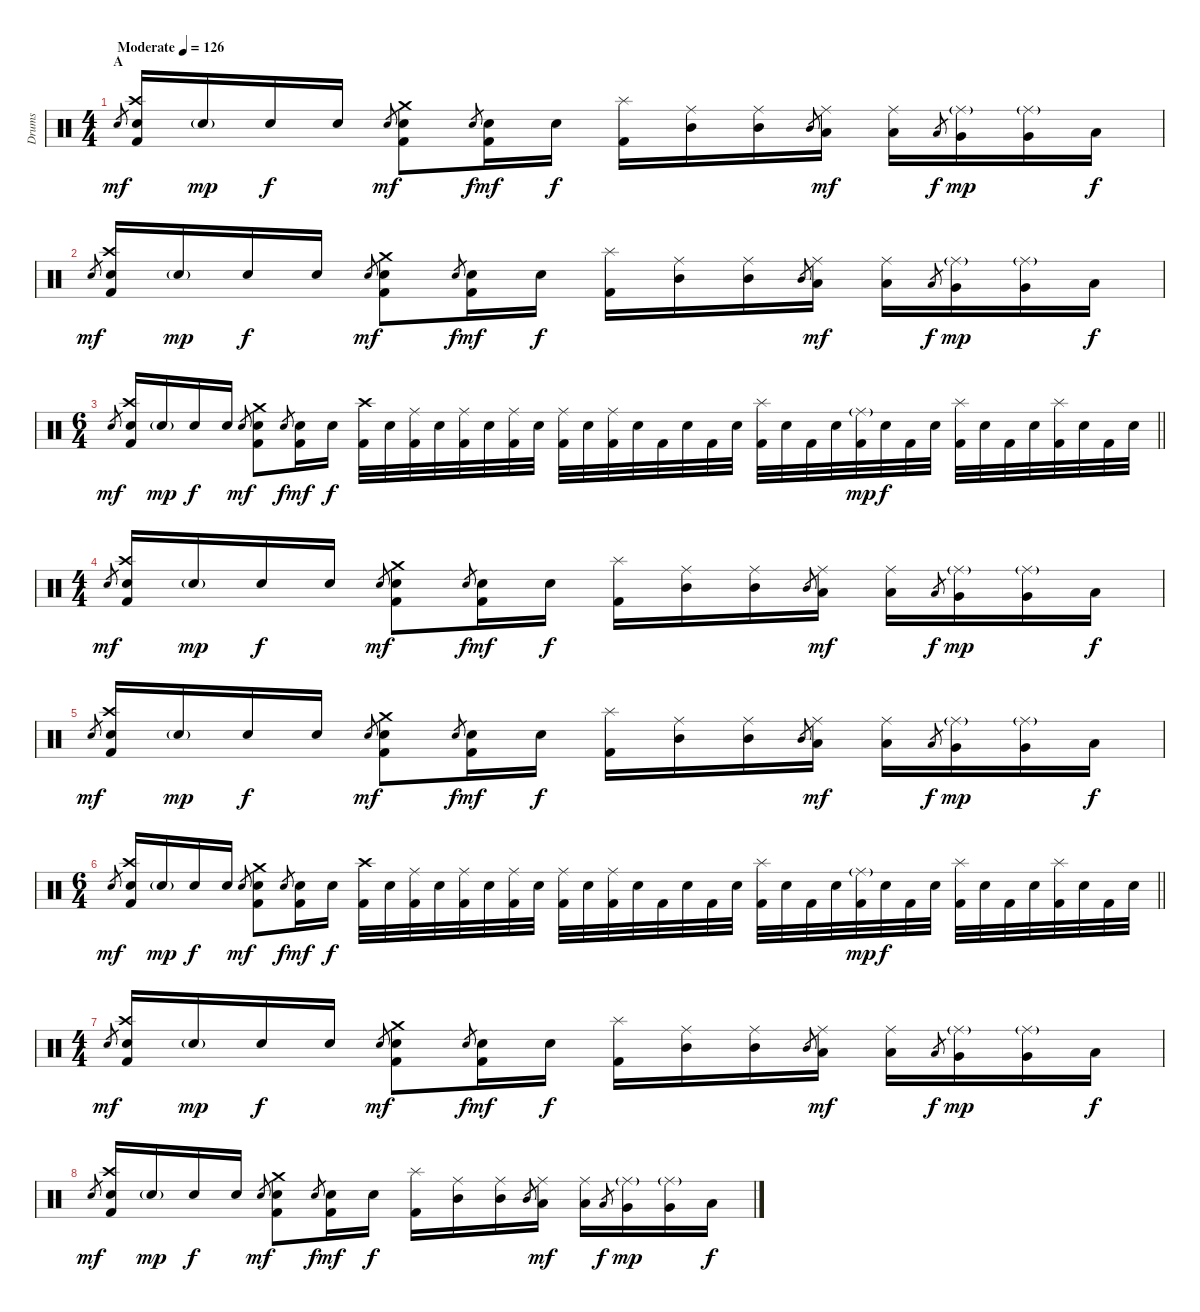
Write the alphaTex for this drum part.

\track ("Drums" "Drums") {instrument percussion}
\staff {score}
\articulation defaults
\ts (4 4)
\section ("" "A")
\tempo (126 "Moderate")
\clef neutral
\ks c "Electric Snare (hit)".8{gr dy mf}
("Crash high (hit)" "Electric Snare (hit)" "Kick (hit) 2").16 "Electric Snare (hit)"{g}.16{dy mp} "Electric Snare (hit)".16{dy f} "Electric Snare (hit)".16 "Electric Snare (hit)".8{gr dy mf} ("Crash medium (hit)" "Electric Snare (hit)" "Kick (hit) 2").8 "Electric Snare (hit)".8{gr dy f} ("Electric Snare (hit)" "Kick (hit) 2").16{dy mf} "Electric Snare (hit)".16{dy f} ("Splash (hit)" "Kick (hit) 2").16 ("Ride (middle)" "Mid Tom (hit)").16 ("Ride (middle)" "Mid Tom (hit)").16 "Mid Tom (hit)".8{gr} ("Ride (middle)" "Low Tom (hit)").16{dy mf} ("Ride (middle)" "Low Tom (hit)").16 "Low Tom (hit)".8{gr dy f} ("Ride (middle)"{g} "Very Low Tom (hit)").16{dy mp} ("Ride (middle)"{g} "Very Low Tom (hit)").16 "Low Floor Tom (hit)".16{dy f} |
"Electric Snare (hit)".8{gr dy mf} ("Crash high (hit)" "Electric Snare (hit)" "Kick (hit) 2").16 "Electric Snare (hit)"{g}.16{dy mp} "Electric Snare (hit)".16{dy f} "Electric Snare (hit)".16 "Electric Snare (hit)".8{gr dy mf} ("Crash medium (hit)" "Electric Snare (hit)" "Kick (hit) 2").8 "Electric Snare (hit)".8{gr dy f} ("Electric Snare (hit)" "Kick (hit) 2").16{dy mf} "Electric Snare (hit)".16{dy f} ("Splash (hit)" "Kick (hit) 2").16 ("Ride (middle)" "Mid Tom (hit)").16 ("Ride (middle)" "Mid Tom (hit)").16 "Mid Tom (hit)".8{gr} ("Ride (middle)" "Low Tom (hit)").16{dy mf} ("Ride (middle)" "Low Tom (hit)").16 "Low Tom (hit)".8{gr dy f} ("Ride (middle)"{g} "Very Low Tom (hit)").16{dy mp} ("Ride (middle)"{g} "Very Low Tom (hit)").16 "Low Floor Tom (hit)".16{dy f} |
\ts (6 4)
\barLineRight lightlight "Electric Snare (hit)".8{gr dy mf}
("Crash high (hit)" "Electric Snare (hit)" "Kick (hit) 2").16 "Electric Snare (hit)"{g}.16{dy mp} "Electric Snare (hit)".16{dy f} "Electric Snare (hit)".16 "Electric Snare (hit)".8{gr dy mf} ("Crash medium (hit)" "Electric Snare (hit)" "Kick (hit) 2").8 "Electric Snare (hit)".8{gr dy f} ("Electric Snare (hit)" "Kick (hit) 2").16{dy mf} "Electric Snare (hit)".16{dy f} ("Crash high (hit)" "Kick (hit) 2").32 "Electric Snare (hit)".32 ("Ride (middle)" "Kick (hit) 2").32 "Electric Snare (hit)".32 ("Ride (middle)" "Kick (hit) 2").32 "Electric Snare (hit)".32 ("Ride (middle)" "Kick (hit) 2").32 "Electric Snare (hit)".32 ("Ride (middle)" "Kick (hit) 2").32 "Electric Snare (hit)".32 ("Ride (middle)" "Kick (hit) 2").32 "Electric Snare (hit)".32 "Kick (hit) 2".32 "Electric Snare (hit)".32 "Kick (hit) 2".32 "Electric Snare (hit)".32 ("Splash (hit)" "Kick (hit) 2").32 "Electric Snare (hit)".32 "Kick (hit) 2".32 "Electric Snare (hit)".32 ("Ride (middle)"{g} "Kick (hit) 2").32{dy mp} "Electric Snare (hit)".32{dy f} "Kick (hit) 2".32 "Electric Snare (hit)".32 ("Splash (hit)" "Kick (hit) 2").32 "Electric Snare (hit)".32 "Kick (hit) 2".32 "Electric Snare (hit)".32 ("Splash (hit)" "Kick (hit) 2").32 "Electric Snare (hit)".32 "Kick (hit) 2".32 "Electric Snare (hit)".32 |
\ts (4 4)
\section ("" "")
"Electric Snare (hit)".8{gr dy mf} ("Crash high (hit)" "Electric Snare (hit)" "Kick (hit) 2").16 "Electric Snare (hit)"{g}.16{dy mp} "Electric Snare (hit)".16{dy f} "Electric Snare (hit)".16 "Electric Snare (hit)".8{gr dy mf} ("Crash medium (hit)" "Electric Snare (hit)" "Kick (hit) 2").8 "Electric Snare (hit)".8{gr dy f} ("Electric Snare (hit)" "Kick (hit) 2").16{dy mf} "Electric Snare (hit)".16{dy f} ("Splash (hit)" "Kick (hit) 2").16 ("Ride (middle)" "Mid Tom (hit)").16 ("Ride (middle)" "Mid Tom (hit)").16 "Mid Tom (hit)".8{gr} ("Ride (middle)" "Low Tom (hit)").16{dy mf} ("Ride (middle)" "Low Tom (hit)").16 "Low Tom (hit)".8{gr dy f} ("Ride (middle)"{g} "Very Low Tom (hit)").16{dy mp} ("Ride (middle)"{g} "Very Low Tom (hit)").16 "Low Floor Tom (hit)".16{dy f} |
"Electric Snare (hit)".8{gr dy mf} ("Crash high (hit)" "Electric Snare (hit)" "Kick (hit) 2").16 "Electric Snare (hit)"{g}.16{dy mp} "Electric Snare (hit)".16{dy f} "Electric Snare (hit)".16 "Electric Snare (hit)".8{gr dy mf} ("Crash medium (hit)" "Electric Snare (hit)" "Kick (hit) 2").8 "Electric Snare (hit)".8{gr dy f} ("Electric Snare (hit)" "Kick (hit) 2").16{dy mf} "Electric Snare (hit)".16{dy f} ("Splash (hit)" "Kick (hit) 2").16 ("Ride (middle)" "Mid Tom (hit)").16 ("Ride (middle)" "Mid Tom (hit)").16 "Mid Tom (hit)".8{gr} ("Ride (middle)" "Low Tom (hit)").16{dy mf} ("Ride (middle)" "Low Tom (hit)").16 "Low Tom (hit)".8{gr dy f} ("Ride (middle)"{g} "Very Low Tom (hit)").16{dy mp} ("Ride (middle)"{g} "Very Low Tom (hit)").16 "Low Floor Tom (hit)".16{dy f} |
\ts (6 4)
\barLineRight lightlight "Electric Snare (hit)".8{gr dy mf}
("Crash high (hit)" "Electric Snare (hit)" "Kick (hit) 2").16 "Electric Snare (hit)"{g}.16{dy mp} "Electric Snare (hit)".16{dy f} "Electric Snare (hit)".16 "Electric Snare (hit)".8{gr dy mf} ("Crash medium (hit)" "Electric Snare (hit)" "Kick (hit) 2").8 "Electric Snare (hit)".8{gr dy f} ("Electric Snare (hit)" "Kick (hit) 2").16{dy mf} "Electric Snare (hit)".16{dy f} ("Crash high (hit)" "Kick (hit) 2").32 "Electric Snare (hit)".32 ("Ride (middle)" "Kick (hit) 2").32 "Electric Snare (hit)".32 ("Ride (middle)" "Kick (hit) 2").32 "Electric Snare (hit)".32 ("Ride (middle)" "Kick (hit) 2").32 "Electric Snare (hit)".32 ("Ride (middle)" "Kick (hit) 2").32 "Electric Snare (hit)".32 ("Ride (middle)" "Kick (hit) 2").32 "Electric Snare (hit)".32 "Kick (hit) 2".32 "Electric Snare (hit)".32 "Kick (hit) 2".32 "Electric Snare (hit)".32 ("Splash (hit)" "Kick (hit) 2").32 "Electric Snare (hit)".32 "Kick (hit) 2".32 "Electric Snare (hit)".32 ("Ride (middle)"{g} "Kick (hit) 2").32{dy mp} "Electric Snare (hit)".32{dy f} "Kick (hit) 2".32 "Electric Snare (hit)".32 ("Splash (hit)" "Kick (hit) 2").32 "Electric Snare (hit)".32 "Kick (hit) 2".32 "Electric Snare (hit)".32 ("Splash (hit)" "Kick (hit) 2").32 "Electric Snare (hit)".32 "Kick (hit) 2".32 "Electric Snare (hit)".32 |
\ts (4 4)
\section ("" "")
"Electric Snare (hit)".8{gr dy mf} ("Crash high (hit)" "Electric Snare (hit)" "Kick (hit) 2").16 "Electric Snare (hit)"{g}.16{dy mp} "Electric Snare (hit)".16{dy f} "Electric Snare (hit)".16 "Electric Snare (hit)".8{gr dy mf} ("Crash medium (hit)" "Electric Snare (hit)" "Kick (hit) 2").8 "Electric Snare (hit)".8{gr dy f} ("Electric Snare (hit)" "Kick (hit) 2").16{dy mf} "Electric Snare (hit)".16{dy f} ("Splash (hit)" "Kick (hit) 2").16 ("Ride (middle)" "Mid Tom (hit)").16 ("Ride (middle)" "Mid Tom (hit)").16 "Mid Tom (hit)".8{gr} ("Ride (middle)" "Low Tom (hit)").16{dy mf} ("Ride (middle)" "Low Tom (hit)").16 "Low Tom (hit)".8{gr dy f} ("Ride (middle)"{g} "Very Low Tom (hit)").16{dy mp} ("Ride (middle)"{g} "Very Low Tom (hit)").16 "Low Floor Tom (hit)".16{dy f} |
"Electric Snare (hit)".8{gr dy mf} ("Crash high (hit)" "Electric Snare (hit)" "Kick (hit) 2").16 "Electric Snare (hit)"{g}.16{dy mp} "Electric Snare (hit)".16{dy f} "Electric Snare (hit)".16 "Electric Snare (hit)".8{gr dy mf} ("Crash medium (hit)" "Electric Snare (hit)" "Kick (hit) 2").8 "Electric Snare (hit)".8{gr dy f} ("Electric Snare (hit)" "Kick (hit) 2").16{dy mf} "Electric Snare (hit)".16{dy f} ("Splash (hit)" "Kick (hit) 2").16 ("Ride (middle)" "Mid Tom (hit)").16 ("Ride (middle)" "Mid Tom (hit)").16 "Mid Tom (hit)".8{gr} ("Ride (middle)" "Low Tom (hit)").16{dy mf} ("Ride (middle)" "Low Tom (hit)").16 "Low Tom (hit)".8{gr dy f} ("Ride (middle)"{g} "Very Low Tom (hit)").16{dy mp} ("Ride (middle)"{g} "Very Low Tom (hit)").16 "Low Floor Tom (hit)".16{dy f}
